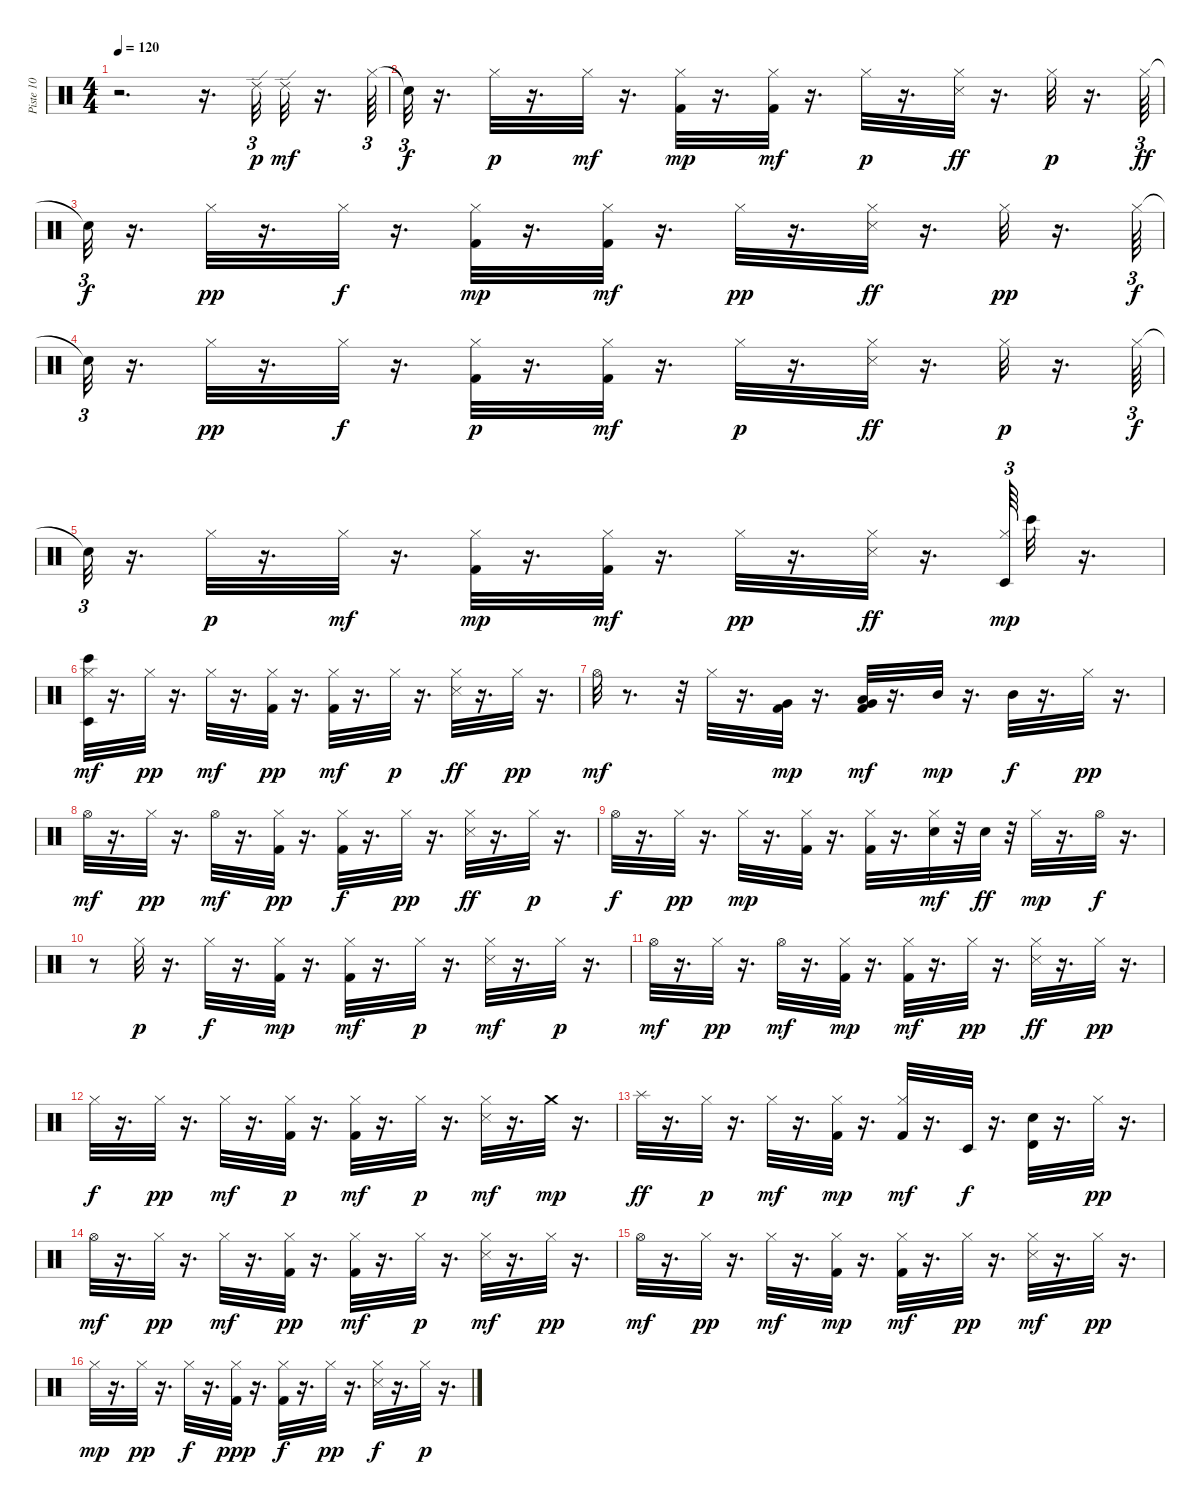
\track ("Piste 10" "Piste 10") {instrument percussion}
\staff {score}
\articulation defaults
\ts (4 4)
\tempo 120
\clef neutral
\ks c
r.2{d dy p} r.16{d} "Ride (edge) 2".32{tu (3 2)} "Ride (edge) 2".32{dy mf} r.16{d} "Hi-Hat (closed)".64{tu (3 2)} |
"Snare (hit)"{t}.32{tu (3 2) dy f} r.16{d} "Hi-Hat (closed)".32{dy p} r.16{d} "Hi-Hat (closed)".32{dy mf} r.16{d} ("Hi-Hat (closed)" "Kick (hit) 2").32{dy mp} r.16{d} ("Hi-Hat (closed)" "Kick (hit) 2").32{dy mf} r.16{d} "Hi-Hat (closed)".32{dy p} r.16{d} ("Hi-Hat (closed)" "Snare (side stick) 3").32{dy ff} r.16{d} "Hi-Hat (closed)".32{dy p} r.16{d} "Hi-Hat (closed)".64{tu (3 2) dy ff} |
"Snare (hit)"{t}.32{tu (3 2) dy f} r.16{d} "Hi-Hat (closed)".32{dy pp} r.16{d} "Hi-Hat (closed)".32{dy f} r.16{d} ("Hi-Hat (closed)" "Kick (hit) 2").32{dy mp} r.16{d} ("Hi-Hat (closed)" "Kick (hit) 2").32{dy mf} r.16{d} "Hi-Hat (closed)".32{dy pp} r.16{d} ("Hi-Hat (closed)" "Snare (side stick) 3").32{dy ff} r.16{d} "Hi-Hat (closed)".32{dy pp} r.16{d} "Hi-Hat (closed)".64{tu (3 2) dy f} |
"Snare (hit)"{t}.32{tu (3 2)} r.16{d} "Hi-Hat (closed)".32{dy pp} r.16{d} "Hi-Hat (closed)".32{dy f} r.16{d} ("Kick (hit) 2" "Hi-Hat (closed)").32{dy p} r.16{d} ("Hi-Hat (closed)" "Kick (hit) 2").32{dy mf} r.16{d} "Hi-Hat (closed)".32{dy p} r.16{d} ("Hi-Hat (closed)" "Snare (side stick) 3").32{dy ff} r.16{d} "Hi-Hat (closed)".32{dy p} r.16{d} "Hi-Hat (closed)".64{tu (3 2) dy f} |
"Snare (hit)"{t}.32{tu (3 2)} r.16{d} "Hi-Hat (closed)".32{dy p} r.16{d} "Hi-Hat (closed)".32{dy mf} r.16{d} ("Hi-Hat (closed)" "Kick (hit) 2").32{dy mp} r.16{d} ("Hi-Hat (closed)" "Kick (hit) 2").32{dy mf} r.16{d} "Hi-Hat (closed)".32{dy pp} r.16{d} ("Hi-Hat (closed)" "Snare (side stick) 3").32{dy ff} r.16{d} ("Hi-Hat (closed)" "Timbale low (hit)").64{tu (3 2) dy mp} "Bongo High (hit)".32 r.16{d} |
("Timbale low (hit)" "Bongo High (hit)" "Hi-Hat (closed)").32{dy mf} r.16{d} "Hi-Hat (closed)".32{dy pp} r.16{d} "Hi-Hat (closed)".32{dy mf} r.16{d} ("Kick (hit) 2" "Hi-Hat (closed)").32{dy pp} r.16{d} ("Hi-Hat (closed)" "Kick (hit) 2").32{dy mf} r.16{d} "Hi-Hat (closed)".32{dy p} r.16{d} ("Hi-Hat (closed)" "Snare (side stick) 3").32{dy ff} r.16{d} "Hi-Hat (closed)".32{dy pp} r.16{d} |
"Hi-Hat (open)".32{dy mf} r.8{d} r.32 "Hi-Hat (closed)".32 r.16{d} ("Very Low Tom (hit)" "Kick (hit) 2").32{dy mp} r.16{d} ("Very Low Tom (hit)" "Low Tom (hit)" "Kick (hit) 2").32{dy mf} r.16{d} "Mid Tom (hit)".32{dy mp} r.16{d} "Mid Tom (hit)".32{dy f} r.16{d} "Hi-Hat (closed)".32{dy pp} r.16{d} |
"Hi-Hat (open)".32{dy mf} r.16{d} "Hi-Hat (closed)".32{dy pp} r.16{d} "Hi-Hat (open)".32{dy mf} r.16{d} ("Kick (hit) 2" "Hi-Hat (closed)").32{dy pp} r.16{d} ("Kick (hit) 2" "Hi-Hat (closed)").32{dy f} r.16{d} "Hi-Hat (closed)".32{dy pp} r.16{d} ("Snare (side stick) 3" "Hi-Hat (closed)").32{dy ff} r.16{d} "Hi-Hat (closed)".32{dy p} r.16{d} |
"Hi-Hat (open)".32{dy f} r.16{d} "Hi-Hat (closed)".32{dy pp} r.16{d} "Hi-Hat (closed)".32{dy mp} r.16{d} ("Hi-Hat (closed)" "Kick (hit) 2").32 r.16{d} ("Kick (hit) 2" "Hi-Hat (closed)").32 r.16{d} ("Hi-Hat (closed)" "Electric Snare (hit)").32{dy mf} r.32 "Electric Snare (hit)".32{dy ff} r.32 "Hi-Hat (closed)".32{dy mp} r.16{d} "Hi-Hat (open)".32{dy f} r.16{d} |
r.8 "Hi-Hat (closed)".32{dy p} r.16{d} "Hi-Hat (closed)".32{dy f} r.16{d} ("Hi-Hat (closed)" "Kick (hit) 2").32{dy mp} r.16{d} ("Hi-Hat (closed)" "Kick (hit) 2").32{dy mf} r.16{d} "Hi-Hat (closed)".32{dy p} r.16{d} ("Hi-Hat (closed)" "Snare (side stick) 3").32{dy mf} r.16{d} "Hi-Hat (closed)".32{dy p} r.16{d} |
"Hi-Hat (open)".32{dy mf} r.16{d} "Hi-Hat (closed)".32{dy pp} r.16{d} "Hi-Hat (open)".32{dy mf} r.16{d} ("Hi-Hat (closed)" "Kick (hit) 2").32{dy mp} r.16{d} ("Hi-Hat (closed)" "Kick (hit) 2").32{dy mf} r.16{d} "Hi-Hat (closed)".32{dy pp} r.16{d} ("Hi-Hat (closed)" "Snare (side stick) 3").32{dy ff} r.16{d} "Hi-Hat (closed)".32{dy pp} r.16{d} |
"Hi-Hat (closed)".32{dy f} r.16{d} "Hi-Hat (closed)".32{dy pp} r.16{d} "Hi-Hat (closed)".32{dy mf} r.16{d} ("Kick (hit) 2" "Hi-Hat (closed)").32{dy p} r.16{d} ("Hi-Hat (closed)" "Kick (hit) 2").32{dy mf} r.16{d} "Hi-Hat (closed)".32{dy p} r.16{d} ("Hi-Hat (closed)" "Snare (side stick) 3").32{dy mf} r.16{d} "Crash medium (hit)".32{dy mp} r.16{d} |
"Splash (hit)".32{dy ff} r.16{d} "Hi-Hat (closed)".32{dy p} r.16{d} "Hi-Hat (closed)".32{dy mf} r.16{d} ("Hi-Hat (closed)" "Kick (hit) 2").32{dy mp} r.16{d} ("Hi-Hat (closed)" "Kick (hit) 2").32{dy mf} r.16{d} "Timbale low (hit)".32{dy f} r.16{d} ("Electric Snare (hit)" "Timbale high (hit)").32 r.16{d} "Hi-Hat (closed)".32{dy pp} r.16{d} |
"Hi-Hat (open)".32{dy mf} r.16{d} "Hi-Hat (closed)".32{dy pp} r.16{d} "Hi-Hat (closed)".32{dy mf} r.16{d} ("Kick (hit) 2" "Hi-Hat (closed)").32{dy pp} r.16{d} ("Hi-Hat (closed)" "Kick (hit) 2").32{dy mf} r.16{d} "Hi-Hat (closed)".32{dy p} r.16{d} ("Hi-Hat (closed)" "Snare (side stick) 3").32{dy mf} r.16{d} "Hi-Hat (closed)".32{dy pp} r.16{d} |
"Hi-Hat (open)".32{dy mf} r.16{d} "Hi-Hat (closed)".32{dy pp} r.16{d} "Hi-Hat (closed)".32{dy mf} r.16{d} ("Hi-Hat (closed)" "Kick (hit) 2").32{dy mp} r.16{d} ("Hi-Hat (closed)" "Kick (hit) 2").32{dy mf} r.16{d} "Hi-Hat (closed)".32{dy pp} r.16{d} ("Hi-Hat (closed)" "Snare (side stick) 3").32{dy mf} r.16{d} "Hi-Hat (closed)".32{dy pp} r.16{d} |
"Hi-Hat (closed)".32{dy mp} r.16{d} "Hi-Hat (closed)".32{dy pp} r.16{d} "Hi-Hat (closed)".32{dy f} r.16{d} ("Kick (hit) 2" "Hi-Hat (closed)").32{dy ppp} r.16{d} ("Kick (hit) 2" "Hi-Hat (closed)").32{dy f} r.16{d} "Hi-Hat (closed)".32{dy pp} r.16{d} ("Snare (side stick) 3" "Hi-Hat (closed)").32{dy f} r.16{d} "Hi-Hat (closed)".32{dy p} r.16{d}
